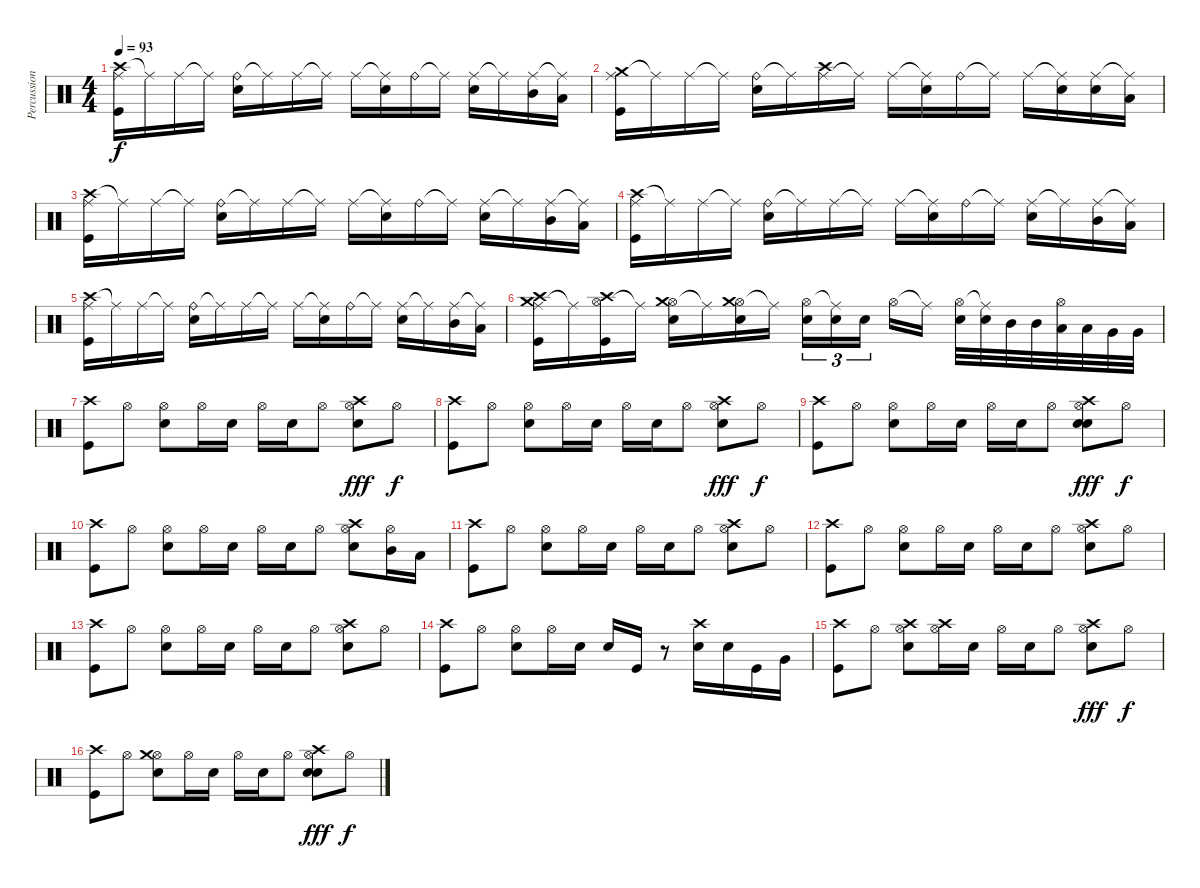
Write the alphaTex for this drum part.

\track ("Percussions" "Percussion") {instrument percussion}
\staff {score}
\articulation defaults
\ts (4 4)
\tempo 93
\clef neutral
\ks c
("Crash high (hit)" "Ride (middle)" "Kick (hit)").16{dy f} "Ride (middle)"{t}.16 "Ride (middle)".16 "Ride (middle)"{t}.16 ("Ride (bell)" "Snare (hit) 2").16 "Ride (middle)"{t}.16 "Ride (middle)".16 "Ride (middle)"{t}.16 "Ride (middle)".16 ("Ride (middle)"{t} "Snare (hit) 2").16 "Ride (bell)".16 "Ride (middle)"{t}.16 ("Ride (middle)" "Snare (hit) 2").16 "Ride (middle)"{t}.16 ("Ride (middle)" "Mid Tom (hit)").16 ("Ride (middle)"{t} "Low Tom (hit)").16 |
("Crash medium (hit)" "Ride (middle)" "Kick (hit)").16 "Ride (middle)"{t}.16 "Ride (middle)".16 "Ride (middle)"{t}.16 ("Ride (bell)" "Snare (hit) 2").16 "Ride (middle)"{t}.16 ("Ride (middle)" "Crash high (hit)").16 "Ride (middle)"{t}.16 "Ride (middle)".16 ("Ride (middle)"{t} "Snare (hit) 2").16 "Ride (bell)".16 "Ride (middle)"{t}.16 "Ride (middle)".16 ("Ride (middle)"{t} "Snare (hit) 2").16 ("Ride (middle)" "Snare (hit) 2").16 ("Ride (middle)"{t} "Low Tom (hit)").16 |
("Crash high (hit)" "Ride (middle)" "Kick (hit)").16 "Ride (middle)"{t}.16 "Ride (middle)".16 "Ride (middle)"{t}.16 ("Ride (bell)" "Snare (hit) 2").16 "Ride (middle)"{t}.16 "Ride (middle)".16 "Ride (middle)"{t}.16 "Ride (middle)".16 ("Ride (middle)"{t} "Snare (hit) 2").16 "Ride (bell)".16 "Ride (middle)"{t}.16 ("Ride (middle)" "Snare (hit) 2").16 "Ride (middle)"{t}.16 ("Ride (middle)" "Mid Tom (hit)").16 ("Ride (middle)"{t} "Low Tom (hit)").16 |
("Crash high (hit)" "Ride (middle)" "Kick (hit)").16 "Ride (middle)"{t}.16 "Ride (middle)".16 "Ride (middle)"{t}.16 ("Ride (bell)" "Snare (hit) 2").16 "Ride (middle)"{t}.16 "Ride (middle)".16 "Ride (middle)"{t}.16 "Ride (middle)".16 ("Ride (middle)"{t} "Snare (hit) 2").16 "Ride (bell)".16 "Ride (middle)"{t}.16 ("Ride (middle)" "Snare (hit) 2").16 "Ride (middle)"{t}.16 ("Ride (middle)" "Mid Tom (hit)").16 ("Ride (middle)"{t} "Low Tom (hit)").16 |
("Crash high (hit)" "Ride (middle)" "Kick (hit)").16 "Ride (middle)"{t}.16 "Ride (middle)".16 "Ride (middle)"{t}.16 ("Ride (bell)" "Snare (hit) 2").16 "Ride (middle)"{t}.16 "Ride (middle)".16 "Ride (middle)"{t}.16 "Ride (middle)".16 ("Ride (middle)"{t} "Snare (hit) 2").16 "Ride (bell)".16 "Ride (middle)"{t}.16 ("Ride (middle)" "Snare (hit) 2").16 "Ride (middle)"{t}.16 ("Ride (middle)" "Mid Tom (hit)").16 ("Ride (middle)"{t} "Low Tom (hit)").16 |
("Crash medium (hit)" "Ride (middle)" "Crash high (hit)" "Kick (hit)").16 "Ride (middle)"{t}.16 ("Hi-Hat (open)" "Crash high (hit)" "Kick (hit)").16 "Ride (middle)"{t}.16 ("Hi-Hat (open)" "Crash medium (hit)" "Snare (hit) 2").16 "Ride (middle)"{t}.16 ("Hi-Hat (open)" "Crash medium (hit)" "Snare (hit) 2").16 "Ride (middle)"{t}.16 ("Hi-Hat (open)" "Snare (hit) 2").16{tu (3 2)} ("Ride (middle)"{t} "Snare (hit) 2").16{tu (3 2)} "Snare (hit) 2".16{tu (3 2)} "Hi-Hat (open)".16 "Ride (middle)"{t}.16 ("Hi-Hat (open)" "Snare (hit) 2").32 ("Ride (middle)"{t} "Snare (hit) 2").32 "Mid Tom (hit)".32 "Mid Tom (hit)".32 ("Hi-Hat (open)" "Low Tom (hit)").32 "Low Tom (hit)".32 "Very Low Tom (hit)".32 "Very Low Tom (hit)".32 |
\section ("" "")
("Crash high (hit)" "Kick (hit)").8 "Hi-Hat (open)".8 ("Hi-Hat (open)" "Snare (hit) 2").8 "Hi-Hat (open)".16 "Snare (hit) 2".16 "Hi-Hat (open)".16 "Snare (hit) 2".16 "Hi-Hat (open)".8 ("Hi-Hat (open)" "Crash high (hit)" "Snare (hit) 2").8{dy fff} "Hi-Hat (open)".8{dy f} |
("Crash high (hit)" "Kick (hit)").8 "Hi-Hat (open)".8 ("Hi-Hat (open)" "Snare (hit) 2").8 "Hi-Hat (open)".16 "Snare (hit) 2".16 "Hi-Hat (open)".16 "Snare (hit) 2".16 "Hi-Hat (open)".8 ("Hi-Hat (open)" "Crash high (hit)" "Snare (hit) 2").8{dy fff} "Hi-Hat (open)".8{dy f} |
("Crash high (hit)" "Kick (hit)").8 "Hi-Hat (open)".8 ("Hi-Hat (open)" "Snare (hit) 2").8 "Hi-Hat (open)".16 "Snare (hit) 2".16 "Hi-Hat (open)".16 "Snare (hit) 2".16 "Hi-Hat (open)".8 ("Hi-Hat (open)" "Crash high (hit)" "Snare (hit) 2" "Snare (hit) 2").8{dy fff} "Hi-Hat (open)".8{dy f} |
("Crash high (hit)" "Kick (hit)").8 "Hi-Hat (open)".8 ("Hi-Hat (open)" "Snare (hit) 2").8 "Hi-Hat (open)".16 "Snare (hit) 2".16 "Hi-Hat (open)".16 "Snare (hit) 2".16 "Hi-Hat (open)".8 ("Hi-Hat (open)" "Crash high (hit)" "Snare (hit) 2").8 ("Hi-Hat (open)" "Mid Tom (hit)").16 "Low Tom (hit)".16 |
("Crash high (hit)" "Kick (hit)").8 "Hi-Hat (open)".8 ("Hi-Hat (open)" "Snare (hit) 2").8 "Hi-Hat (open)".16 "Snare (hit) 2".16 "Hi-Hat (open)".16 "Snare (hit) 2".16 "Hi-Hat (open)".8 ("Hi-Hat (open)" "Crash high (hit)" "Snare (hit) 2").8 "Hi-Hat (open)".8 |
("Crash high (hit)" "Kick (hit)").8 "Hi-Hat (open)".8 ("Hi-Hat (open)" "Snare (hit) 2").8 "Hi-Hat (open)".16 "Snare (hit) 2".16 "Hi-Hat (open)".16 "Snare (hit) 2".16 "Hi-Hat (open)".8 ("Hi-Hat (open)" "Crash high (hit)" "Snare (hit) 2").8 "Hi-Hat (open)".8 |
("Crash high (hit)" "Kick (hit)").8 "Hi-Hat (open)".8 ("Hi-Hat (open)" "Snare (hit) 2").8 "Hi-Hat (open)".16 "Snare (hit) 2".16 "Hi-Hat (open)".16 "Snare (hit) 2".16 "Hi-Hat (open)".8 ("Hi-Hat (open)" "Crash high (hit)" "Snare (hit) 2").8 "Hi-Hat (open)".8 |
("Crash high (hit)" "Kick (hit)").8 "Hi-Hat (open)".8 ("Hi-Hat (open)" "Snare (hit) 2").8 "Hi-Hat (open)".16 "Snare (hit) 2".16 "Snare (hit) 2".16 "Kick (hit)".16 r.8 ("Crash high (hit)" "Snare (hit) 2").16 "Snare (hit) 2".16 "Kick (hit)".16 "Very Low Tom (hit)".16 |
("Crash high (hit)" "Kick (hit)").8 "Hi-Hat (open)".8 ("Hi-Hat (open)" "Crash high (hit)" "Snare (hit) 2").8 ("Hi-Hat (open)" "Crash high (hit)").16 "Snare (hit) 2".16 "Hi-Hat (open)".16 "Snare (hit) 2".16 "Hi-Hat (open)".8 ("Hi-Hat (open)" "Crash high (hit)" "Snare (hit) 2").8{dy fff} "Hi-Hat (open)".8{dy f} |
("Crash high (hit)" "Kick (hit)").8 "Hi-Hat (open)".8 ("Hi-Hat (open)" "Crash medium (hit)" "Snare (hit) 2").8 "Hi-Hat (open)".16 "Snare (hit) 2".16 "Hi-Hat (open)".16 "Snare (hit) 2".16 "Hi-Hat (open)".8 ("Hi-Hat (open)" "Crash high (hit)" "Snare (hit) 2" "Snare (hit) 2").8{dy fff} "Hi-Hat (open)".8{dy f}
